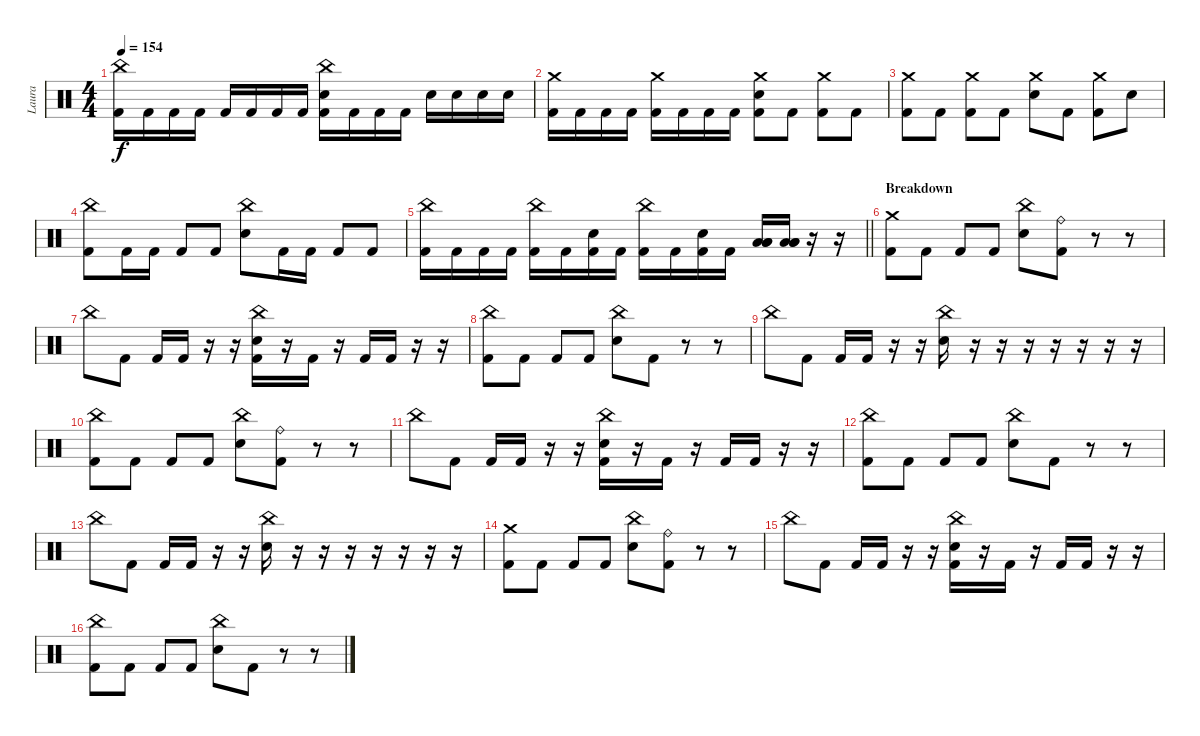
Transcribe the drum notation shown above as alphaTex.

\track ("Laura" "Laura") {instrument percussion}
\staff {score}
\articulation defaults
\ts (4 4)
\tempo 154
\clef neutral
\ks c
("China (hit)" "Kick (hit) 2").16{dy f} "Kick (hit) 2".16 "Kick (hit) 2".16 "Kick (hit) 2".16 "Kick (hit) 2".16 "Kick (hit) 2".16 "Kick (hit) 2".16 "Kick (hit) 2".16 ("China (hit)" "Electric Snare (hit)" "Kick (hit) 2").16 "Kick (hit) 2".16 "Kick (hit) 2".16 "Kick (hit) 2".16 "Electric Snare (hit)".16 "Electric Snare (hit)".16 "Electric Snare (hit)".16 "Electric Snare (hit)".16 |
("Crash medium (hit)" "Kick (hit) 2").16 "Kick (hit) 2".16 "Kick (hit) 2".16 "Kick (hit) 2".16 ("Crash medium (hit)" "Kick (hit) 2").16 "Kick (hit) 2".16 "Kick (hit) 2".16 "Kick (hit) 2".16 ("Crash medium (hit)" "Electric Snare (hit)" "Kick (hit) 2").8 "Kick (hit) 2".8 ("Crash medium (hit)" "Kick (hit) 2").8 "Kick (hit) 2".8 |
("Crash medium (hit)" "Kick (hit) 2").8 "Kick (hit) 2".8 ("Crash medium (hit)" "Kick (hit) 2").8 "Kick (hit) 2".8 ("Crash medium (hit)" "Electric Snare (hit)").8 "Kick (hit) 2".8 ("Crash medium (hit)" "Kick (hit) 2").8 "Electric Snare (hit)".8 |
("China (hit)" "Kick (hit) 2").8 "Kick (hit) 2".16 "Kick (hit) 2".16 "Kick (hit) 2".8 "Kick (hit) 2".8 ("China (hit)" "Electric Snare (hit)").8 "Kick (hit) 2".16 "Kick (hit) 2".16 "Kick (hit) 2".8 "Kick (hit) 2".8 |
\barLineRight lightlight
("China (hit)" "Kick (hit) 2").16 "Kick (hit) 2".16 "Kick (hit) 2".16 "Kick (hit) 2".16 ("China (hit)" "Kick (hit) 2").16 "Kick (hit) 2".16 ("Electric Snare (hit)" "Kick (hit) 2").16 "Kick (hit) 2".16 ("China (hit)" "Kick (hit) 2").16 "Kick (hit) 2".16 ("Electric Snare (hit)" "Kick (hit) 2").16 "Kick (hit) 2".16 ("Low Floor Tom (hit)" "Low Floor Tom (hit)" "Low Floor Tom (hit)").16 ("Low Floor Tom (hit)" "Low Floor Tom (hit)" "Low Floor Tom (hit)").16 r.16 r.16 |
\section ("" "Breakdown")
("Crash medium (hit)" "Kick (hit) 2").8 "Kick (hit) 2".8 "Kick (hit) 2".8 "Kick (hit) 2".8 ("China (hit)" "Electric Snare (hit)").8 ("Ride (bell)" "Kick (hit) 2").8 r.8 r.8 |
"China (hit)".8 "Kick (hit) 2".8 "Kick (hit) 2".16 "Kick (hit) 2".16 r.16 r.16 ("China (hit)" "Electric Snare (hit)" "Kick (hit) 2").16 r.16 "Kick (hit) 2".16 r.16 "Kick (hit) 2".16 "Kick (hit) 2".16 r.16 r.16 |
("China (hit)" "Kick (hit) 2").8 "Kick (hit) 2".8 "Kick (hit) 2".8 "Kick (hit) 2".8 ("China (hit)" "Electric Snare (hit)").8 "Kick (hit) 2".8 r.8 r.8 |
"China (hit)".8 "Kick (hit) 2".8 "Kick (hit) 2".16 "Kick (hit) 2".16 r.16 r.16 ("China (hit)" "Electric Snare (hit)").16 r.16 r.16 r.16 r.16 r.16 r.16 r.16 |
("China (hit)" "Kick (hit) 2").8 "Kick (hit) 2".8 "Kick (hit) 2".8 "Kick (hit) 2".8 ("China (hit)" "Electric Snare (hit)").8 ("Ride (bell)" "Kick (hit) 2").8 r.8 r.8 |
"China (hit)".8 "Kick (hit) 2".8 "Kick (hit) 2".16 "Kick (hit) 2".16 r.16 r.16 ("China (hit)" "Electric Snare (hit)" "Kick (hit) 2").16 r.16 "Kick (hit) 2".16 r.16 "Kick (hit) 2".16 "Kick (hit) 2".16 r.16 r.16 |
("China (hit)" "Kick (hit) 2").8 "Kick (hit) 2".8 "Kick (hit) 2".8 "Kick (hit) 2".8 ("China (hit)" "Electric Snare (hit)").8 "Kick (hit) 2".8 r.8 r.8 |
"China (hit)".8 "Kick (hit) 2".8 "Kick (hit) 2".16 "Kick (hit) 2".16 r.16 r.16 ("China (hit)" "Electric Snare (hit)").16 r.16 r.16 r.16 r.16 r.16 r.16 r.16 |
("Crash medium (hit)" "Kick (hit) 2").8 "Kick (hit) 2".8 "Kick (hit) 2".8 "Kick (hit) 2".8 ("China (hit)" "Electric Snare (hit)").8 ("Ride (bell)" "Kick (hit) 2").8 r.8 r.8 |
"China (hit)".8 "Kick (hit) 2".8 "Kick (hit) 2".16 "Kick (hit) 2".16 r.16 r.16 ("China (hit)" "Electric Snare (hit)" "Kick (hit) 2").16 r.16 "Kick (hit) 2".16 r.16 "Kick (hit) 2".16 "Kick (hit) 2".16 r.16 r.16 |
("China (hit)" "Kick (hit) 2").8 "Kick (hit) 2".8 "Kick (hit) 2".8 "Kick (hit) 2".8 ("China (hit)" "Electric Snare (hit)").8 "Kick (hit) 2".8 r.8 r.8
